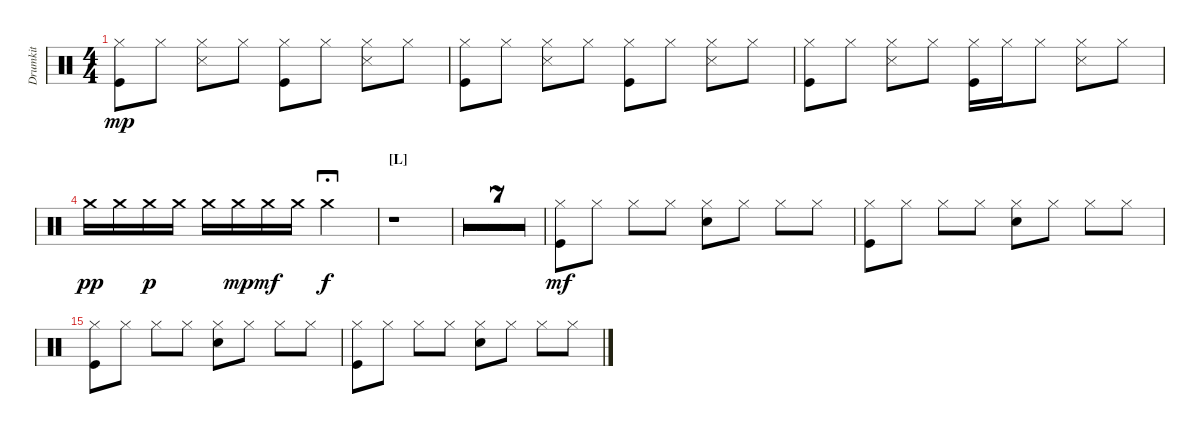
\bracketExtendMode groupsimilarinstruments
\multiTrackTrackNamePolicy hidden
\firstSystemTrackNameMode fullname
\otherSystemsTrackNameMode fullname
\otherSystemsTrackNameOrientation horizontal
\defaultBarNumberDisplay FirstOfSystem
\track ("Drumkit" "Drums") {multiBarRest instrument percussion}
\staff {score}
\articulation defaults
\ts (4 4)
\tempo (150 hide)
\clef neutral
\ks c
("Hi-Hat (closed)" "Kick (hit)").8{dy mp} "Hi-Hat (closed)".8 ("Hi-Hat (closed)" "Snare (side stick) 3").8 "Hi-Hat (closed)".8 ("Hi-Hat (closed)" "Kick (hit)").8 "Hi-Hat (closed)".8 ("Hi-Hat (closed)" "Snare (side stick) 3").8 "Hi-Hat (closed)".8 |
("Hi-Hat (closed)" "Kick (hit)").8 "Hi-Hat (closed)".8 ("Hi-Hat (closed)" "Snare (side stick) 3").8 "Hi-Hat (closed)".8 ("Hi-Hat (closed)" "Kick (hit)").8 "Hi-Hat (closed)".8 ("Hi-Hat (closed)" "Snare (side stick) 3").8 "Hi-Hat (closed)".8 |
("Hi-Hat (closed)" "Kick (hit)").8 "Hi-Hat (closed)".8 ("Hi-Hat (closed)" "Snare (side stick) 3").8 "Hi-Hat (closed)".8 ("Hi-Hat (closed)" "Kick (hit)").16 "Hi-Hat (closed)".16 "Hi-Hat (closed)".8 ("Hi-Hat (closed)" "Snare (side stick) 3").8 "Hi-Hat (closed)".8 |
"Crash medium (hit)".16{dy pp} "Crash medium (hit)".16 "Crash medium (hit)".16{dy p} "Crash medium (hit)".16 "Crash medium (hit)".16 "Crash medium (hit)".16{dy mp} "Crash medium (hit)".16{dy mf} "Crash medium (hit)".16 "Crash medium (hit)".2{dy f fermata (long 1)} |
\section ("L" "")
r.1 |
r.1 |
r.1 |
r.1 |
r.1 |
r.1 |
r.1 |
r.1 |
("Hi-Hat (closed)" "Kick (hit)").8{dy mf} "Hi-Hat (closed)".8 "Hi-Hat (closed)".8 "Hi-Hat (closed)".8 ("Hi-Hat (closed)" "Snare (hit) 2").8 "Hi-Hat (closed)".8 "Hi-Hat (closed)".8 "Hi-Hat (closed)".8 |
("Hi-Hat (closed)" "Kick (hit)").8 "Hi-Hat (closed)".8 "Hi-Hat (closed)".8 "Hi-Hat (closed)".8 ("Hi-Hat (closed)" "Snare (hit) 2").8 "Hi-Hat (closed)".8 "Hi-Hat (closed)".8 "Hi-Hat (closed)".8 |
("Hi-Hat (closed)" "Kick (hit)").8 "Hi-Hat (closed)".8 "Hi-Hat (closed)".8 "Hi-Hat (closed)".8 ("Hi-Hat (closed)" "Snare (hit) 2").8 "Hi-Hat (closed)".8 "Hi-Hat (closed)".8 "Hi-Hat (closed)".8 |
("Hi-Hat (closed)" "Kick (hit)").8 "Hi-Hat (closed)".8 "Hi-Hat (closed)".8 "Hi-Hat (closed)".8 ("Hi-Hat (closed)" "Snare (hit) 2").8 "Hi-Hat (closed)".8 "Hi-Hat (closed)".8 "Hi-Hat (closed)".8
